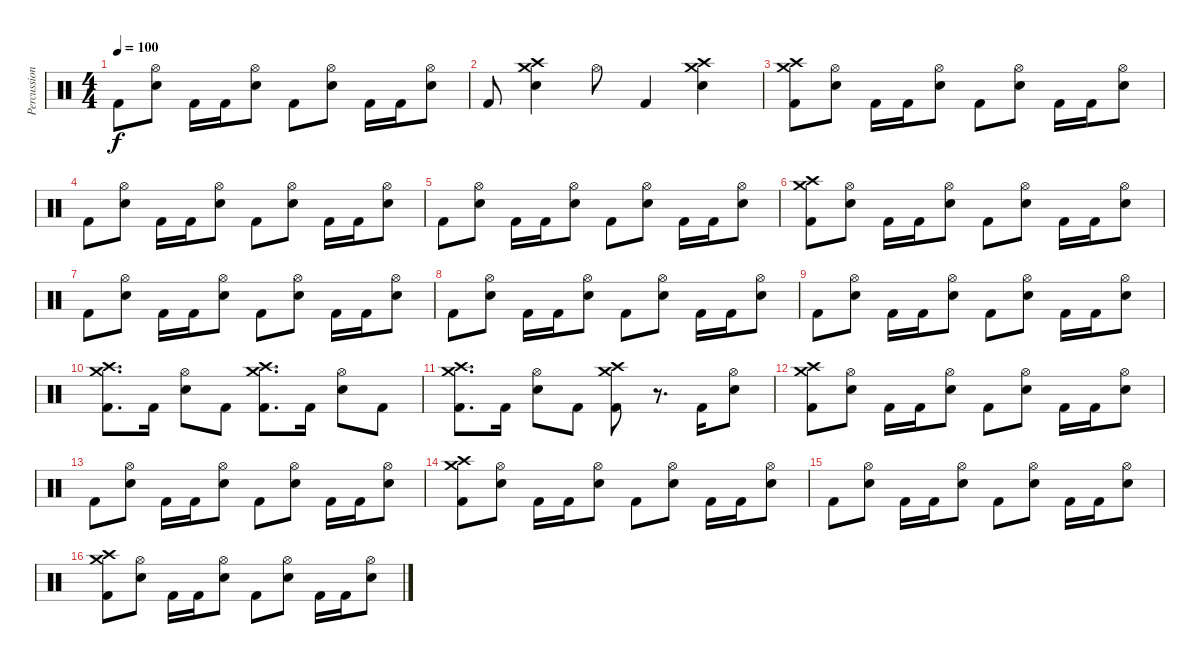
\track ("Percussion" "Percussion") {instrument percussion}
\staff {score}
\articulation defaults
\ts (4 4)
\tempo 100
\clef neutral
\ks c "Kick (hit) 2".8{dy f}
("Hi-Hat (open)" "Electric Snare (hit)").8 "Kick (hit) 2".16 "Kick (hit) 2".16 ("Hi-Hat (open)" "Electric Snare (hit)").8 "Kick (hit) 2".8 ("Hi-Hat (open)" "Electric Snare (hit)").8 "Kick (hit) 2".16 "Kick (hit) 2".16 ("Hi-Hat (open)" "Electric Snare (hit)").8 |
"Kick (hit) 2".8 ("Crash medium (hit)" "Crash high (hit)" "Electric Snare (hit)").4 "Hi-Hat (open)".8 "Kick (hit) 2".4 ("Crash high (hit)" "Crash medium (hit)" "Electric Snare (hit)").4 |
("Crash high (hit)" "Crash medium (hit)" "Kick (hit) 2").8 ("Hi-Hat (open)" "Electric Snare (hit)").8 "Kick (hit) 2".16 "Kick (hit) 2".16 ("Hi-Hat (open)" "Electric Snare (hit)").8 "Kick (hit) 2".8 ("Hi-Hat (open)" "Electric Snare (hit)").8 "Kick (hit) 2".16 "Kick (hit) 2".16 ("Hi-Hat (open)" "Electric Snare (hit)").8 |
"Kick (hit) 2".8 ("Hi-Hat (open)" "Electric Snare (hit)").8 "Kick (hit) 2".16 "Kick (hit) 2".16 ("Hi-Hat (open)" "Electric Snare (hit)").8 "Kick (hit) 2".8 ("Hi-Hat (open)" "Electric Snare (hit)").8 "Kick (hit) 2".16 "Kick (hit) 2".16 ("Hi-Hat (open)" "Electric Snare (hit)").8 |
"Kick (hit) 2".8 ("Hi-Hat (open)" "Electric Snare (hit)").8 "Kick (hit) 2".16 "Kick (hit) 2".16 ("Hi-Hat (open)" "Electric Snare (hit)").8 "Kick (hit) 2".8 ("Hi-Hat (open)" "Electric Snare (hit)").8 "Kick (hit) 2".16 "Kick (hit) 2".16 ("Hi-Hat (open)" "Electric Snare (hit)").8 |
("Crash high (hit)" "Crash medium (hit)" "Kick (hit) 2").8 ("Hi-Hat (open)" "Electric Snare (hit)").8 "Kick (hit) 2".16 "Kick (hit) 2".16 ("Hi-Hat (open)" "Electric Snare (hit)").8 "Kick (hit) 2".8 ("Hi-Hat (open)" "Electric Snare (hit)").8 "Kick (hit) 2".16 "Kick (hit) 2".16 ("Hi-Hat (open)" "Electric Snare (hit)").8 |
"Kick (hit) 2".8 ("Hi-Hat (open)" "Electric Snare (hit)").8 "Kick (hit) 2".16 "Kick (hit) 2".16 ("Hi-Hat (open)" "Electric Snare (hit)").8 "Kick (hit) 2".8 ("Hi-Hat (open)" "Electric Snare (hit)").8 "Kick (hit) 2".16 "Kick (hit) 2".16 ("Hi-Hat (open)" "Electric Snare (hit)").8 |
"Kick (hit) 2".8 ("Hi-Hat (open)" "Electric Snare (hit)").8 "Kick (hit) 2".16 "Kick (hit) 2".16 ("Hi-Hat (open)" "Electric Snare (hit)").8 "Kick (hit) 2".8 ("Hi-Hat (open)" "Electric Snare (hit)").8 "Kick (hit) 2".16 "Kick (hit) 2".16 ("Hi-Hat (open)" "Electric Snare (hit)").8 |
"Kick (hit) 2".8 ("Hi-Hat (open)" "Electric Snare (hit)").8 "Kick (hit) 2".16 "Kick (hit) 2".16 ("Hi-Hat (open)" "Electric Snare (hit)").8 "Kick (hit) 2".8 ("Hi-Hat (open)" "Electric Snare (hit)").8 "Kick (hit) 2".16 "Kick (hit) 2".16 ("Hi-Hat (open)" "Electric Snare (hit)").8 |
("Crash high (hit)" "Crash medium (hit)" "Kick (hit) 2").8{d} "Kick (hit) 2".16 ("Hi-Hat (open)" "Electric Snare (hit)").8 "Kick (hit) 2".8 ("Crash high (hit)" "Crash medium (hit)" "Kick (hit) 2").8{d} "Kick (hit) 2".16 ("Hi-Hat (open)" "Electric Snare (hit)").8 "Kick (hit) 2".8 |
("Crash high (hit)" "Crash medium (hit)" "Kick (hit) 2").8{d} "Kick (hit) 2".16 ("Hi-Hat (open)" "Electric Snare (hit)").8 "Kick (hit) 2".8 ("Crash high (hit)" "Crash medium (hit)" "Kick (hit) 2").8 r.8{d} "Kick (hit) 2".16 ("Hi-Hat (open)" "Electric Snare (hit)").8 |
("Crash high (hit)" "Crash medium (hit)" "Kick (hit) 2").8 ("Hi-Hat (open)" "Electric Snare (hit)").8 "Kick (hit) 2".16 "Kick (hit) 2".16 ("Hi-Hat (open)" "Electric Snare (hit)").8 "Kick (hit) 2".8 ("Hi-Hat (open)" "Electric Snare (hit)").8 "Kick (hit) 2".16 "Kick (hit) 2".16 ("Hi-Hat (open)" "Electric Snare (hit)").8 |
"Kick (hit) 2".8 ("Hi-Hat (open)" "Electric Snare (hit)").8 "Kick (hit) 2".16 "Kick (hit) 2".16 ("Hi-Hat (open)" "Electric Snare (hit)").8 "Kick (hit) 2".8 ("Hi-Hat (open)" "Electric Snare (hit)").8 "Kick (hit) 2".16 "Kick (hit) 2".16 ("Hi-Hat (open)" "Electric Snare (hit)").8 |
("Crash high (hit)" "Crash medium (hit)" "Kick (hit) 2").8 ("Hi-Hat (open)" "Electric Snare (hit)").8 "Kick (hit) 2".16 "Kick (hit) 2".16 ("Hi-Hat (open)" "Electric Snare (hit)").8 "Kick (hit) 2".8 ("Hi-Hat (open)" "Electric Snare (hit)").8 "Kick (hit) 2".16 "Kick (hit) 2".16 ("Hi-Hat (open)" "Electric Snare (hit)").8 |
"Kick (hit) 2".8 ("Hi-Hat (open)" "Electric Snare (hit)").8 "Kick (hit) 2".16 "Kick (hit) 2".16 ("Hi-Hat (open)" "Electric Snare (hit)").8 "Kick (hit) 2".8 ("Hi-Hat (open)" "Electric Snare (hit)").8 "Kick (hit) 2".16 "Kick (hit) 2".16 ("Hi-Hat (open)" "Electric Snare (hit)").8 |
("Crash high (hit)" "Crash medium (hit)" "Kick (hit) 2").8 ("Hi-Hat (open)" "Electric Snare (hit)").8 "Kick (hit) 2".16 "Kick (hit) 2".16 ("Hi-Hat (open)" "Electric Snare (hit)").8 "Kick (hit) 2".8 ("Hi-Hat (open)" "Electric Snare (hit)").8 "Kick (hit) 2".16 "Kick (hit) 2".16 ("Hi-Hat (open)" "Electric Snare (hit)").8
